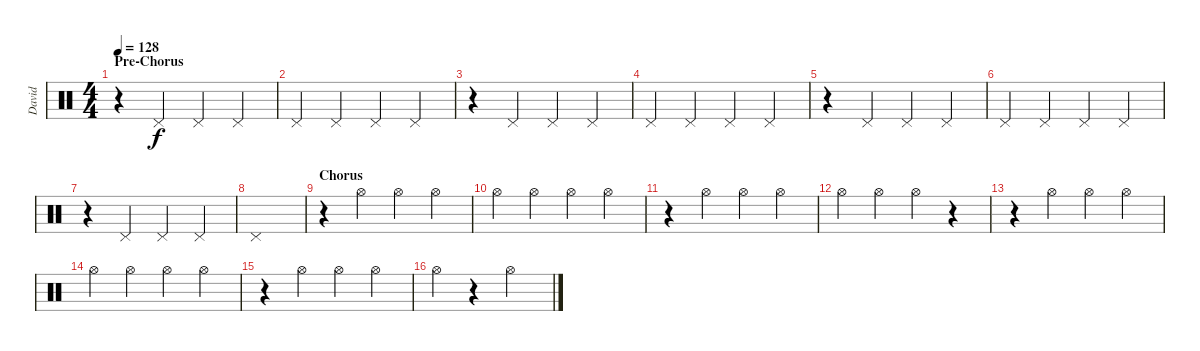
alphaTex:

\track ("David" "David") {instrument percussion}
\staff {score}
\articulation defaults
\ts (4 4)
\section ("" "Pre-Chorus")
\tempo 128
\clef neutral
\ks c
r.4{dy f} "Pedal Hi-Hat (hit)".4 "Pedal Hi-Hat (hit)".4 "Pedal Hi-Hat (hit)".4 |
"Pedal Hi-Hat (hit)".4 "Pedal Hi-Hat (hit)".4 "Pedal Hi-Hat (hit)".4 "Pedal Hi-Hat (hit)".4 |
r.4 "Pedal Hi-Hat (hit)".4 "Pedal Hi-Hat (hit)".4 "Pedal Hi-Hat (hit)".4 |
"Pedal Hi-Hat (hit)".4 "Pedal Hi-Hat (hit)".4 "Pedal Hi-Hat (hit)".4 "Pedal Hi-Hat (hit)".4 |
r.4 "Pedal Hi-Hat (hit)".4 "Pedal Hi-Hat (hit)".4 "Pedal Hi-Hat (hit)".4 |
"Pedal Hi-Hat (hit)".4 "Pedal Hi-Hat (hit)".4 "Pedal Hi-Hat (hit)".4 "Pedal Hi-Hat (hit)".4 |
r.4 "Pedal Hi-Hat (hit)".4 "Pedal Hi-Hat (hit)".4 "Pedal Hi-Hat (hit)".4 |
"Pedal Hi-Hat (hit)".1 |
\section ("" "Chorus")
r.4 "Hi-Hat (open)".4 "Hi-Hat (open)".4 "Hi-Hat (open)".4 |
"Hi-Hat (open)".4 "Hi-Hat (open)".4 "Hi-Hat (open)".4 "Hi-Hat (open)".4 |
r.4 "Hi-Hat (open)".4 "Hi-Hat (open)".4 "Hi-Hat (open)".4 |
"Hi-Hat (open)".4 "Hi-Hat (open)".4 "Hi-Hat (open)".4 r.4 |
r.4 "Hi-Hat (open)".4 "Hi-Hat (open)".4 "Hi-Hat (open)".4 |
"Hi-Hat (open)".4 "Hi-Hat (open)".4 "Hi-Hat (open)".4 "Hi-Hat (open)".4 |
r.4 "Hi-Hat (open)".4 "Hi-Hat (open)".4 "Hi-Hat (open)".4 |
"Hi-Hat (open)".4 r.4 "Hi-Hat (open)".2
